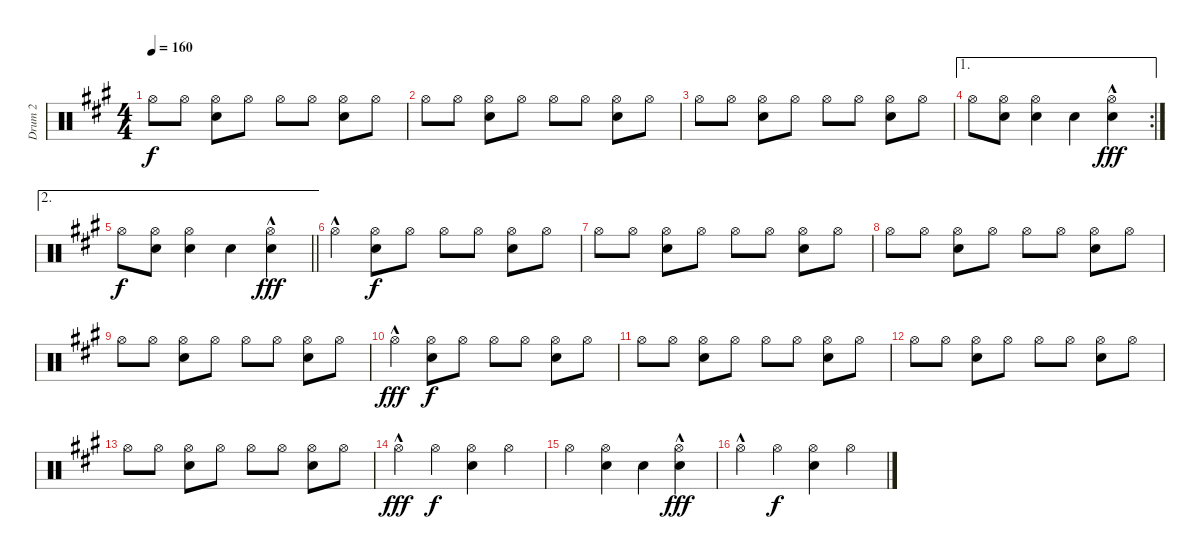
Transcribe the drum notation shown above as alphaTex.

\track ("Drum 2" "Drum 2") {instrument percussion}
\staff {score}
\articulation defaults
\ts (4 4)
\tempo 160
\clef neutral
\ks a "Hi-Hat (open)".8{dy f} "Hi-Hat (open)".8
("Hi-Hat (open)" "Snare (hit) 2").8 "Hi-Hat (open)".8 "Hi-Hat (open)".8 "Hi-Hat (open)".8 ("Hi-Hat (open)" "Snare (hit) 2").8 "Hi-Hat (open)".8 |
"Hi-Hat (open)".8 "Hi-Hat (open)".8 ("Hi-Hat (open)" "Snare (hit) 2").8 "Hi-Hat (open)".8 "Hi-Hat (open)".8 "Hi-Hat (open)".8 ("Hi-Hat (open)" "Snare (hit) 2").8 "Hi-Hat (open)".8 |
"Hi-Hat (open)".8 "Hi-Hat (open)".8 ("Hi-Hat (open)" "Snare (hit) 2").8 "Hi-Hat (open)".8 "Hi-Hat (open)".8 "Hi-Hat (open)".8 ("Hi-Hat (open)" "Snare (hit) 2").8 "Hi-Hat (open)".8 |
\ae 1
\rc 2 "Hi-Hat (open)".8
("Hi-Hat (open)" "Snare (hit) 2").8 ("Hi-Hat (open)" "Snare (hit) 2").4 "Snare (hit) 2".4 ("Hi-Hat (open)"{hac} "Snare (hit) 2").4{dy fff} |
\ae 2
\barLineRight lightlight "Hi-Hat (open)".8{dy f}
("Hi-Hat (open)" "Snare (hit) 2").8 ("Hi-Hat (open)" "Snare (hit) 2").4 "Snare (hit) 2".4 ("Hi-Hat (open)"{hac} "Snare (hit) 2").4{dy fff} |
"Hi-Hat (open)"{hac}.4 ("Hi-Hat (open)" "Snare (hit) 2").8{dy f} "Hi-Hat (open)".8 "Hi-Hat (open)".8 "Hi-Hat (open)".8 ("Hi-Hat (open)" "Snare (hit) 2").8 "Hi-Hat (open)".8 |
"Hi-Hat (open)".8 "Hi-Hat (open)".8 ("Hi-Hat (open)" "Snare (hit) 2").8 "Hi-Hat (open)".8 "Hi-Hat (open)".8 "Hi-Hat (open)".8 ("Hi-Hat (open)" "Snare (hit) 2").8 "Hi-Hat (open)".8 |
"Hi-Hat (open)".8 "Hi-Hat (open)".8 ("Hi-Hat (open)" "Snare (hit) 2").8 "Hi-Hat (open)".8 "Hi-Hat (open)".8 "Hi-Hat (open)".8 ("Hi-Hat (open)" "Snare (hit) 2").8 "Hi-Hat (open)".8 |
"Hi-Hat (open)".8 "Hi-Hat (open)".8 ("Hi-Hat (open)" "Snare (hit) 2").8 "Hi-Hat (open)".8 "Hi-Hat (open)".8 "Hi-Hat (open)".8 ("Hi-Hat (open)" "Snare (hit) 2").8 "Hi-Hat (open)".8 |
"Hi-Hat (open)"{hac}.4{dy fff} ("Hi-Hat (open)" "Snare (hit) 2").8{dy f} "Hi-Hat (open)".8 "Hi-Hat (open)".8 "Hi-Hat (open)".8 ("Hi-Hat (open)" "Snare (hit) 2").8 "Hi-Hat (open)".8 |
"Hi-Hat (open)".8 "Hi-Hat (open)".8 ("Hi-Hat (open)" "Snare (hit) 2").8 "Hi-Hat (open)".8 "Hi-Hat (open)".8 "Hi-Hat (open)".8 ("Hi-Hat (open)" "Snare (hit) 2").8 "Hi-Hat (open)".8 |
"Hi-Hat (open)".8 "Hi-Hat (open)".8 ("Hi-Hat (open)" "Snare (hit) 2").8 "Hi-Hat (open)".8 "Hi-Hat (open)".8 "Hi-Hat (open)".8 ("Hi-Hat (open)" "Snare (hit) 2").8 "Hi-Hat (open)".8 |
"Hi-Hat (open)".8 "Hi-Hat (open)".8 ("Hi-Hat (open)" "Snare (hit) 2").8 "Hi-Hat (open)".8 "Hi-Hat (open)".8 "Hi-Hat (open)".8 ("Hi-Hat (open)" "Snare (hit) 2").8 "Hi-Hat (open)".8 |
"Hi-Hat (open)"{hac}.4{dy fff} "Hi-Hat (open)".4{dy f} ("Hi-Hat (open)" "Snare (hit) 2").4 "Hi-Hat (open)".4 |
"Hi-Hat (open)".4 ("Hi-Hat (open)" "Snare (hit) 2").4 "Snare (hit) 2".4 ("Hi-Hat (open)"{hac} "Snare (hit) 2").4{dy fff} |
"Hi-Hat (open)"{hac}.4 "Hi-Hat (open)".4{dy f} ("Hi-Hat (open)" "Snare (hit) 2").4 "Hi-Hat (open)".4
